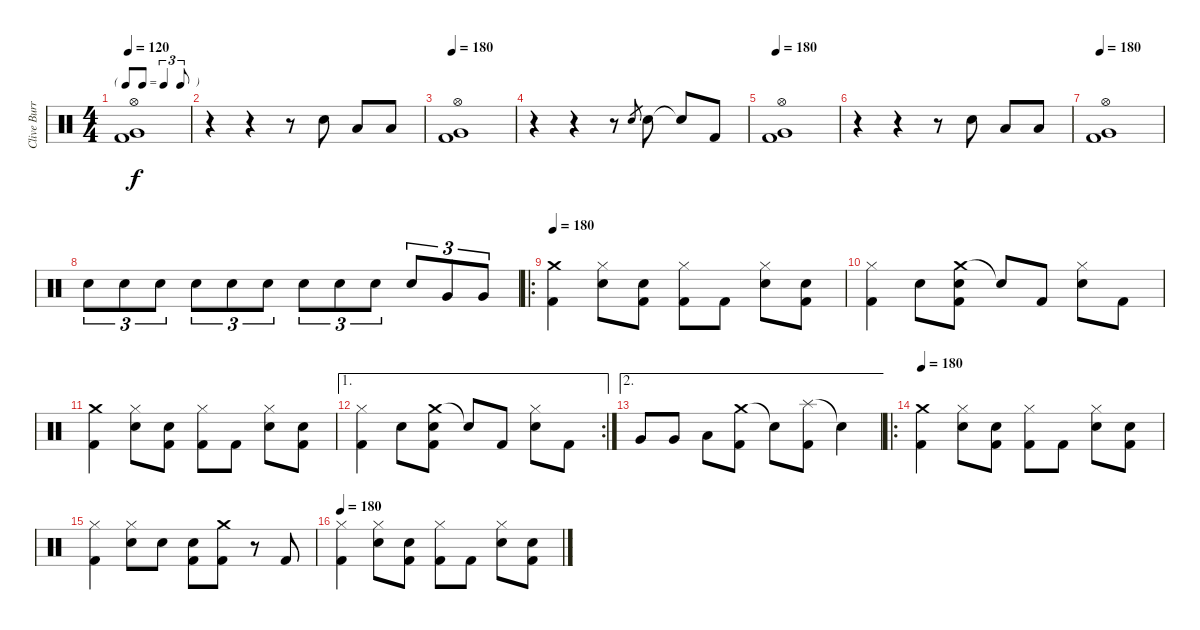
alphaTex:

\track ("Clive Burr" "Clive Burr") {instrument percussion}
\staff {score}
\articulation defaults
\ts (4 4)
\tf triplet8th
\tempo 120
\tempo 180
\tempo 120
\clef neutral
\ks c
("Hi-Hat (open)" "Very Low Tom (hit)" "Kick (hit) 2").1{dy f} |
r.4 r.4 r.8 "Electric Snare (hit)".8 "Low Floor Tom (hit)".8 "Low Floor Tom (hit)".8 |
\tempo 180
("Hi-Hat (open)" "Very Low Tom (hit)" "Kick (hit) 2").1 |
r.4 r.4 r.8 "Electric Snare (hit)".8{gr} "Electric Snare (hit)".8 "Snare (hit)"{t}.8 "Kick (hit) 2".8 |
\tempo 180
("Hi-Hat (open)" "Very Low Tom (hit)" "Kick (hit) 2").1 |
r.4 r.4 r.8 "Electric Snare (hit)".8 "Low Floor Tom (hit)".8 "Low Floor Tom (hit)".8 |
\tempo 180
("Hi-Hat (open)" "Very Low Tom (hit)" "Kick (hit) 2").1 |
"Electric Snare (hit)".8{tu (3 2)} "Electric Snare (hit)".8{tu (3 2)} "Electric Snare (hit)".8{tu (3 2)} "Electric Snare (hit)".8{tu (3 2)} "Electric Snare (hit)".8{tu (3 2)} "Electric Snare (hit)".8{tu (3 2)} "Electric Snare (hit)".8{tu (3 2)} "Electric Snare (hit)".8{tu (3 2)} "Electric Snare (hit)".8{tu (3 2)} "Electric Snare (hit)".8{tu (3 2)} "Very Low Tom (hit)".8{tu (3 2)} "Very Low Tom (hit)".8{tu (3 2)} |
\ro
\tempo 180
("Crash medium (hit)" "Kick (hit) 2").4 ("Hi-Hat (closed)" "Electric Snare (hit)").8 ("Electric Snare (hit)" "Kick (hit) 2").8 ("Hi-Hat (closed)" "Kick (hit) 2").8 "Kick (hit) 2".8 ("Hi-Hat (closed)" "Electric Snare (hit)").8 ("Electric Snare (hit)" "Kick (hit) 2").8 |
("Hi-Hat (closed)" "Kick (hit) 2").4 "Electric Snare (hit)".8 ("Crash medium (hit)" "Electric Snare (hit)" "Kick (hit) 2").8 "Snare (hit)"{t}.8 "Kick (hit) 2".8 ("Hi-Hat (closed)" "Electric Snare (hit)").8 "Kick (hit) 2".8 |
("Crash medium (hit)" "Kick (hit) 2").4 ("Hi-Hat (closed)" "Electric Snare (hit)").8 ("Electric Snare (hit)" "Kick (hit) 2").8 ("Hi-Hat (closed)" "Kick (hit) 2").8 "Kick (hit) 2".8 ("Hi-Hat (closed)" "Electric Snare (hit)").8 ("Electric Snare (hit)" "Kick (hit) 2").8 |
\ae 1
\rc 2
("Hi-Hat (closed)" "Kick (hit) 2").4 "Electric Snare (hit)".8 ("Crash medium (hit)" "Electric Snare (hit)" "Kick (hit) 2").8 "Snare (hit)"{t}.8 "Kick (hit) 2".8 ("Hi-Hat (closed)" "Electric Snare (hit)").8 "Kick (hit) 2".8 |
\ae 2 "Very Low Tom (hit)".8 "Very Low Tom (hit)".8 "Low Floor Tom (hit)".8
("Crash medium (hit)" "Kick (hit) 2").8 "Snare (hit)"{t}.8 ("Splash (hit)" "Kick (hit) 2").8 "Snare (hit)"{t}.4 |
\ro
\tempo 180
("Crash medium (hit)" "Kick (hit) 2").4 ("Hi-Hat (closed)" "Electric Snare (hit)").8 ("Electric Snare (hit)" "Kick (hit) 2").8 ("Hi-Hat (closed)" "Kick (hit) 2").8 "Kick (hit) 2".8 ("Hi-Hat (closed)" "Electric Snare (hit)").8 ("Electric Snare (hit)" "Kick (hit) 2").8 |
("Hi-Hat (closed)" "Kick (hit) 2").4 ("Hi-Hat (closed)" "Electric Snare (hit)").8 "Electric Snare (hit)".8 ("Electric Snare (hit)" "Kick (hit) 2").8 ("Crash medium (hit)" "Kick (hit) 2").8 r.8 "Kick (hit) 2".8 |
\tempo 180
("Hi-Hat (closed)" "Kick (hit) 2").4 ("Hi-Hat (closed)" "Electric Snare (hit)").8 ("Electric Snare (hit)" "Kick (hit) 2").8 ("Hi-Hat (closed)" "Kick (hit) 2").8 "Kick (hit) 2".8 ("Hi-Hat (closed)" "Electric Snare (hit)").8 ("Electric Snare (hit)" "Kick (hit) 2").8
